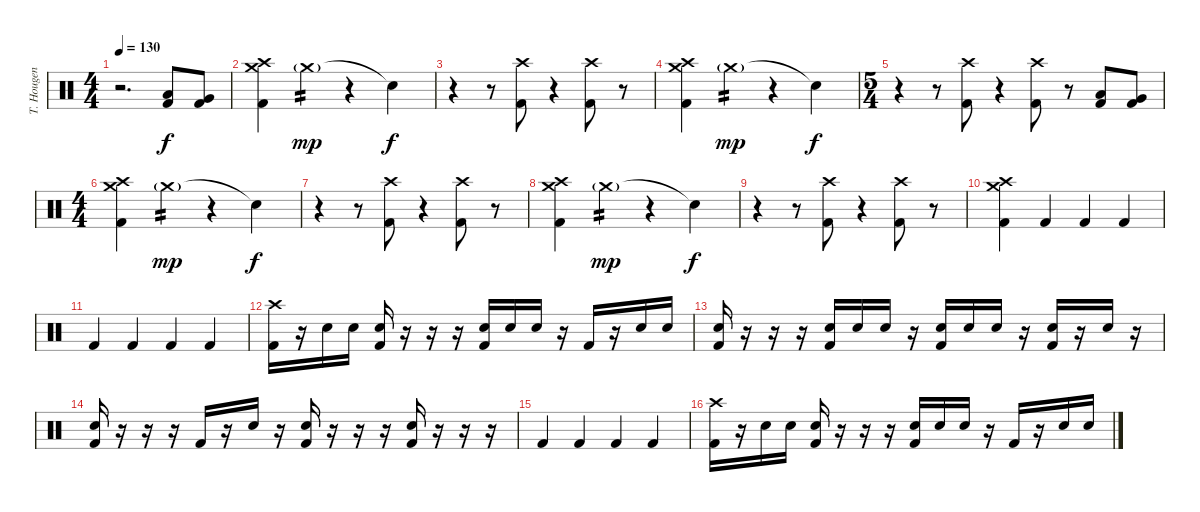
\track ("T. Hougen - Drums" "T. Hougen ") {instrument percussion}
\staff {score}
\articulation defaults
\ts (4 4)
\tempo 130
\clef neutral
\ks c
r.2{d dy f} ("Low Tom (hit)" "Kick (hit) 2").8 ("Very Low Tom (hit)" "Kick (hit) 2").8 |
("Crash high (hit)" "Crash medium (hit)" "Kick (hit) 2").4 "Crash medium (hit)"{g}.4{tp 2 dy mp} r.4 "Snare (hit)"{t}.4{dy f} |
r.4 r.8 ("Crash high (hit)" "Kick (hit) 2").8 r.4 ("Crash high (hit)" "Kick (hit) 2").8 r.8 |
("Crash high (hit)" "Crash medium (hit)" "Kick (hit) 2").4 "Crash medium (hit)"{g}.4{tp 2 dy mp} r.4 "Snare (hit)"{t}.4{dy f} |
\ts (5 4)
r.4 r.8 ("Crash high (hit)" "Kick (hit) 2").8 r.4 ("Crash high (hit)" "Kick (hit) 2").8 r.8 ("Low Tom (hit)" "Kick (hit) 2").8 ("Very Low Tom (hit)" "Kick (hit) 2").8 |
\ts (4 4)
("Crash high (hit)" "Crash medium (hit)" "Kick (hit) 2").4 "Crash medium (hit)"{g}.4{tp 2 dy mp} r.4 "Snare (hit)"{t}.4{dy f} |
r.4 r.8 ("Crash high (hit)" "Kick (hit) 2").8 r.4 ("Crash high (hit)" "Kick (hit) 2").8 r.8 |
("Crash high (hit)" "Crash medium (hit)" "Kick (hit) 2").4 "Crash medium (hit)"{g}.4{tp 2 dy mp} r.4 "Snare (hit)"{t}.4{dy f} |
r.4 r.8 ("Crash high (hit)" "Kick (hit) 2").8 r.4 ("Crash high (hit)" "Kick (hit) 2").8 r.8 |
("Crash high (hit)" "Crash medium (hit)" "Kick (hit) 2").4 "Kick (hit) 2".4 "Kick (hit) 2".4 "Kick (hit) 2".4 |
"Kick (hit) 2".4 "Kick (hit) 2".4 "Kick (hit) 2".4 "Kick (hit) 2".4 |
("Crash high (hit)" "Kick (hit) 2").16 r.16 "Electric Snare (hit)".16 "Electric Snare (hit)".16 ("Electric Snare (hit)" "Kick (hit) 2").16 r.16 r.16 r.16 ("Electric Snare (hit)" "Kick (hit) 2").16 "Electric Snare (hit)".16 "Electric Snare (hit)".16 r.16 "Kick (hit) 2".16 r.16 "Electric Snare (hit)".16 "Electric Snare (hit)".16 |
("Electric Snare (hit)" "Kick (hit) 2").16 r.16 r.16 r.16 ("Electric Snare (hit)" "Kick (hit) 2").16 "Electric Snare (hit)".16 "Electric Snare (hit)".16 r.16 ("Electric Snare (hit)" "Kick (hit) 2").16 "Electric Snare (hit)".16 "Electric Snare (hit)".16 r.16 ("Electric Snare (hit)" "Kick (hit) 2").16 r.16 "Electric Snare (hit)".16 r.16 |
("Electric Snare (hit)" "Kick (hit) 2").16 r.16 r.16 r.16 "Kick (hit) 2".16 r.16 "Electric Snare (hit)".16 r.16 ("Electric Snare (hit)" "Kick (hit) 2").16 r.16 r.16 r.16 ("Electric Snare (hit)" "Kick (hit) 2").16 r.16 r.16 r.16 |
"Kick (hit) 2".4 "Kick (hit) 2".4 "Kick (hit) 2".4 "Kick (hit) 2".4 |
("Crash high (hit)" "Kick (hit) 2").16 r.16 "Electric Snare (hit)".16 "Electric Snare (hit)".16 ("Electric Snare (hit)" "Kick (hit) 2").16 r.16 r.16 r.16 ("Electric Snare (hit)" "Kick (hit) 2").16 "Electric Snare (hit)".16 "Electric Snare (hit)".16 r.16 "Kick (hit) 2".16 r.16 "Electric Snare (hit)".16 "Electric Snare (hit)".16
